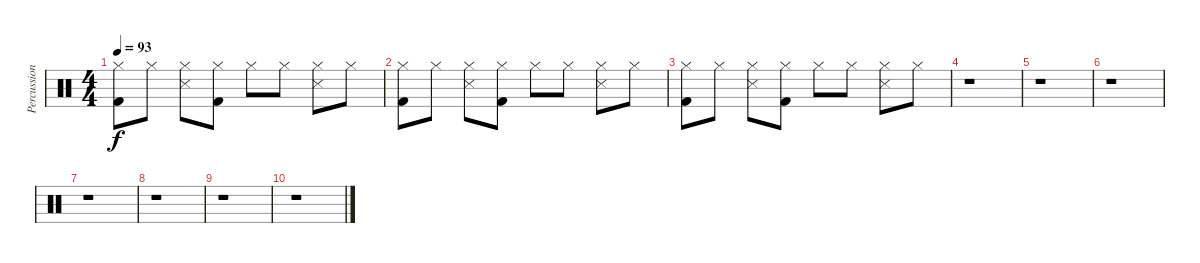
\track ("Percussion" "Percussion") {instrument percussion}
\staff {score}
\articulation defaults
\ts (4 4)
\tempo 93
\clef neutral
\ks c
("Hi-Hat (closed)" "Kick (hit) 2").8{dy f} "Hi-Hat (closed)".8 ("Hi-Hat (closed)" "Snare (side stick) 3").8 ("Hi-Hat (closed)" "Kick (hit) 2").8 "Hi-Hat (closed)".8 "Hi-Hat (closed)".8 ("Hi-Hat (closed)" "Snare (side stick) 3").8 "Hi-Hat (closed)".8 |
("Hi-Hat (closed)" "Kick (hit) 2").8 "Hi-Hat (closed)".8 ("Hi-Hat (closed)" "Snare (side stick) 3").8 ("Hi-Hat (closed)" "Kick (hit) 2").8 "Hi-Hat (closed)".8 "Hi-Hat (closed)".8 ("Hi-Hat (closed)" "Snare (side stick) 3").8 "Hi-Hat (closed)".8 |
("Hi-Hat (closed)" "Kick (hit) 2").8 "Hi-Hat (closed)".8 ("Hi-Hat (closed)" "Snare (side stick) 3").8 ("Hi-Hat (closed)" "Kick (hit) 2").8 "Hi-Hat (closed)".8 "Hi-Hat (closed)".8 ("Hi-Hat (closed)" "Snare (side stick) 3").8 "Hi-Hat (closed)".8 |
r.1 |
r.1 |
r.1 |
r.1 |
r.1 |
r.1 |
r.1
